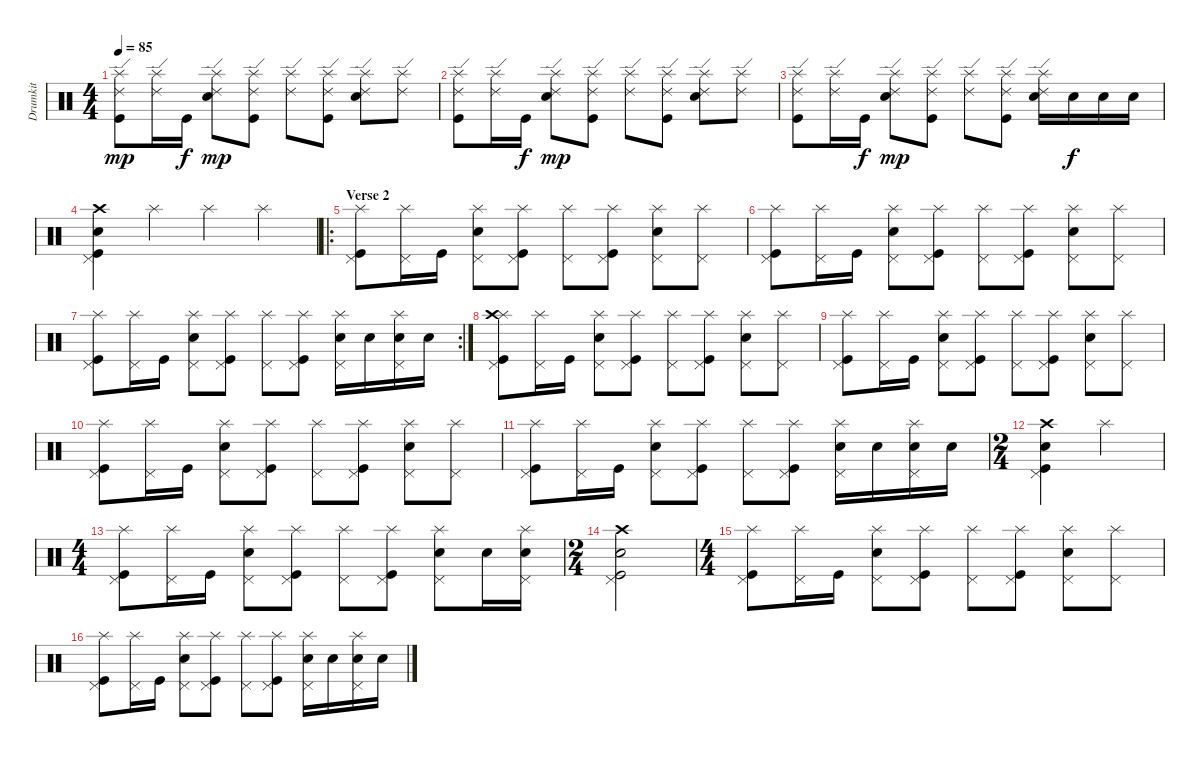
\track ("Drumkit" "Drumkit") {instrument percussion}
\staff {score}
\articulation defaults
\ts (4 4)
\tempo 85
\clef neutral
\ks c
("Splash (hit)" "Ride (edge) 2" "Kick (hit)").8{dy mp} ("Splash (hit)" "Ride (edge) 2").16 "Kick (hit)".16{dy f} ("Splash (hit)" "Ride (edge) 2" "Snare (hit) 2").8{dy mp} ("Splash (hit)" "Ride (edge) 2" "Kick (hit)").8 ("Splash (hit)" "Ride (edge) 2").8 ("Splash (hit)" "Ride (edge) 2" "Kick (hit)").8 ("Splash (hit)" "Ride (edge) 2" "Snare (hit) 2").8 ("Splash (hit)" "Ride (edge) 2").8 |
("Splash (hit)" "Ride (edge) 2" "Kick (hit)").8 ("Splash (hit)" "Ride (edge) 2").16 "Kick (hit)".16{dy f} ("Splash (hit)" "Ride (edge) 2" "Snare (hit) 2").8{dy mp} ("Splash (hit)" "Ride (edge) 2" "Kick (hit)").8 ("Splash (hit)" "Ride (edge) 2").8 ("Splash (hit)" "Ride (edge) 2" "Kick (hit)").8 ("Splash (hit)" "Ride (edge) 2" "Snare (hit) 2").8 ("Splash (hit)" "Ride (edge) 2").8 |
("Splash (hit)" "Ride (edge) 2" "Kick (hit)").8 ("Splash (hit)" "Ride (edge) 2").16 "Kick (hit)".16{dy f} ("Splash (hit)" "Ride (edge) 2" "Snare (hit) 2").8{dy mp} ("Splash (hit)" "Ride (edge) 2" "Kick (hit)").8 ("Splash (hit)" "Ride (edge) 2").8 ("Splash (hit)" "Ride (edge) 2" "Kick (hit)").8 ("Splash (hit)" "Ride (edge) 2" "Snare (hit) 2").16 "Snare (hit) 2".16{dy f} "Snare (hit) 2".16 "Snare (hit) 2".16 |
("Pedal Hi-Hat (hit)" "Crash high (hit)" "Snare (hit) 2" "Kick (hit)").4 "Splash (hit)".4 "Splash (hit)".4 "Splash (hit)".4 |
\ro
\section ("" "Verse 2")
("Pedal Hi-Hat (hit)" "Splash (hit)" "Kick (hit)").8 ("Pedal Hi-Hat (hit)" "Splash (hit)").16 "Kick (hit)".16 ("Pedal Hi-Hat (hit)" "Splash (hit)" "Snare (hit) 2").8 ("Pedal Hi-Hat (hit)" "Splash (hit)" "Kick (hit)").8 ("Pedal Hi-Hat (hit)" "Splash (hit)").8 ("Pedal Hi-Hat (hit)" "Splash (hit)" "Kick (hit)").8 ("Pedal Hi-Hat (hit)" "Splash (hit)" "Snare (hit) 2").8 ("Pedal Hi-Hat (hit)" "Splash (hit)").8 |
("Pedal Hi-Hat (hit)" "Splash (hit)" "Kick (hit)").8 ("Pedal Hi-Hat (hit)" "Splash (hit)").16 "Kick (hit)".16 ("Pedal Hi-Hat (hit)" "Splash (hit)" "Snare (hit) 2").8 ("Pedal Hi-Hat (hit)" "Splash (hit)" "Kick (hit)").8 ("Pedal Hi-Hat (hit)" "Splash (hit)").8 ("Pedal Hi-Hat (hit)" "Splash (hit)" "Kick (hit)").8 ("Pedal Hi-Hat (hit)" "Splash (hit)" "Snare (hit) 2").8 ("Pedal Hi-Hat (hit)" "Splash (hit)").8 |
\rc 2
("Pedal Hi-Hat (hit)" "Splash (hit)" "Kick (hit)").8 ("Pedal Hi-Hat (hit)" "Splash (hit)").16 "Kick (hit)".16 ("Pedal Hi-Hat (hit)" "Splash (hit)" "Snare (hit) 2").8 ("Pedal Hi-Hat (hit)" "Splash (hit)" "Kick (hit)").8 ("Pedal Hi-Hat (hit)" "Splash (hit)").8 ("Pedal Hi-Hat (hit)" "Splash (hit)" "Kick (hit)").8 ("Pedal Hi-Hat (hit)" "Splash (hit)" "Snare (hit) 2").16 "Snare (hit) 2".16 ("Pedal Hi-Hat (hit)" "Splash (hit)" "Snare (hit) 2").16 "Snare (hit) 2".16 |
("Pedal Hi-Hat (hit)" "Splash (hit)" "Crash high (hit)" "Kick (hit)").8 ("Pedal Hi-Hat (hit)" "Splash (hit)").16 "Kick (hit)".16 ("Pedal Hi-Hat (hit)" "Splash (hit)" "Snare (hit) 2").8 ("Pedal Hi-Hat (hit)" "Splash (hit)" "Kick (hit)").8 ("Pedal Hi-Hat (hit)" "Splash (hit)").8 ("Pedal Hi-Hat (hit)" "Splash (hit)" "Kick (hit)").8 ("Pedal Hi-Hat (hit)" "Splash (hit)" "Snare (hit) 2").8 ("Pedal Hi-Hat (hit)" "Splash (hit)").8 |
("Pedal Hi-Hat (hit)" "Splash (hit)" "Kick (hit)").8 ("Pedal Hi-Hat (hit)" "Splash (hit)").16 "Kick (hit)".16 ("Pedal Hi-Hat (hit)" "Splash (hit)" "Snare (hit) 2").8 ("Pedal Hi-Hat (hit)" "Splash (hit)" "Kick (hit)").8 ("Pedal Hi-Hat (hit)" "Splash (hit)").8 ("Pedal Hi-Hat (hit)" "Splash (hit)" "Kick (hit)").8 ("Pedal Hi-Hat (hit)" "Splash (hit)" "Snare (hit) 2").8 ("Pedal Hi-Hat (hit)" "Splash (hit)").8 |
("Pedal Hi-Hat (hit)" "Splash (hit)" "Kick (hit)").8 ("Pedal Hi-Hat (hit)" "Splash (hit)").16 "Kick (hit)".16 ("Pedal Hi-Hat (hit)" "Splash (hit)" "Snare (hit) 2").8 ("Pedal Hi-Hat (hit)" "Splash (hit)" "Kick (hit)").8 ("Pedal Hi-Hat (hit)" "Splash (hit)").8 ("Pedal Hi-Hat (hit)" "Splash (hit)" "Kick (hit)").8 ("Pedal Hi-Hat (hit)" "Splash (hit)" "Snare (hit) 2").8 ("Pedal Hi-Hat (hit)" "Splash (hit)").8 |
("Pedal Hi-Hat (hit)" "Splash (hit)" "Kick (hit)").8 ("Pedal Hi-Hat (hit)" "Splash (hit)").16 "Kick (hit)".16 ("Pedal Hi-Hat (hit)" "Splash (hit)" "Snare (hit) 2").8 ("Pedal Hi-Hat (hit)" "Splash (hit)" "Kick (hit)").8 ("Pedal Hi-Hat (hit)" "Splash (hit)").8 ("Pedal Hi-Hat (hit)" "Splash (hit)" "Kick (hit)").8 ("Pedal Hi-Hat (hit)" "Splash (hit)" "Snare (hit) 2").16 "Snare (hit) 2".16 ("Pedal Hi-Hat (hit)" "Splash (hit)" "Snare (hit) 2").16 "Snare (hit) 2".16 |
\ts (2 4)
("Pedal Hi-Hat (hit)" "Crash high (hit)" "Snare (hit) 2" "Kick (hit)").4 "Splash (hit)".4 |
\ts (4 4)
("Pedal Hi-Hat (hit)" "Splash (hit)" "Kick (hit)").8 ("Pedal Hi-Hat (hit)" "Splash (hit)").16 "Kick (hit)".16 ("Pedal Hi-Hat (hit)" "Splash (hit)" "Snare (hit) 2").8 ("Pedal Hi-Hat (hit)" "Splash (hit)" "Kick (hit)").8 ("Pedal Hi-Hat (hit)" "Splash (hit)").8 ("Pedal Hi-Hat (hit)" "Splash (hit)" "Kick (hit)").8 ("Pedal Hi-Hat (hit)" "Splash (hit)" "Snare (hit) 2").8 "Snare (hit) 2".16 ("Pedal Hi-Hat (hit)" "Splash (hit)" "Snare (hit) 2").16 |
\ts (2 4)
("Pedal Hi-Hat (hit)" "Crash high (hit)" "Snare (hit) 2" "Kick (hit)").2 |
\ts (4 4)
("Pedal Hi-Hat (hit)" "Splash (hit)" "Kick (hit)").8 ("Pedal Hi-Hat (hit)" "Splash (hit)").16 "Kick (hit)".16 ("Pedal Hi-Hat (hit)" "Splash (hit)" "Snare (hit) 2").8 ("Pedal Hi-Hat (hit)" "Splash (hit)" "Kick (hit)").8 ("Pedal Hi-Hat (hit)" "Splash (hit)").8 ("Pedal Hi-Hat (hit)" "Splash (hit)" "Kick (hit)").8 ("Pedal Hi-Hat (hit)" "Splash (hit)" "Snare (hit) 2").8 ("Pedal Hi-Hat (hit)" "Splash (hit)").8 |
("Pedal Hi-Hat (hit)" "Splash (hit)" "Kick (hit)").8 ("Pedal Hi-Hat (hit)" "Splash (hit)").16 "Kick (hit)".16 ("Pedal Hi-Hat (hit)" "Splash (hit)" "Snare (hit) 2").8 ("Pedal Hi-Hat (hit)" "Splash (hit)" "Kick (hit)").8 ("Pedal Hi-Hat (hit)" "Splash (hit)").8 ("Pedal Hi-Hat (hit)" "Splash (hit)" "Kick (hit)").8 ("Pedal Hi-Hat (hit)" "Splash (hit)" "Snare (hit) 2").16 "Snare (hit) 2".16 ("Pedal Hi-Hat (hit)" "Splash (hit)" "Snare (hit) 2").16 "Snare (hit) 2".16
